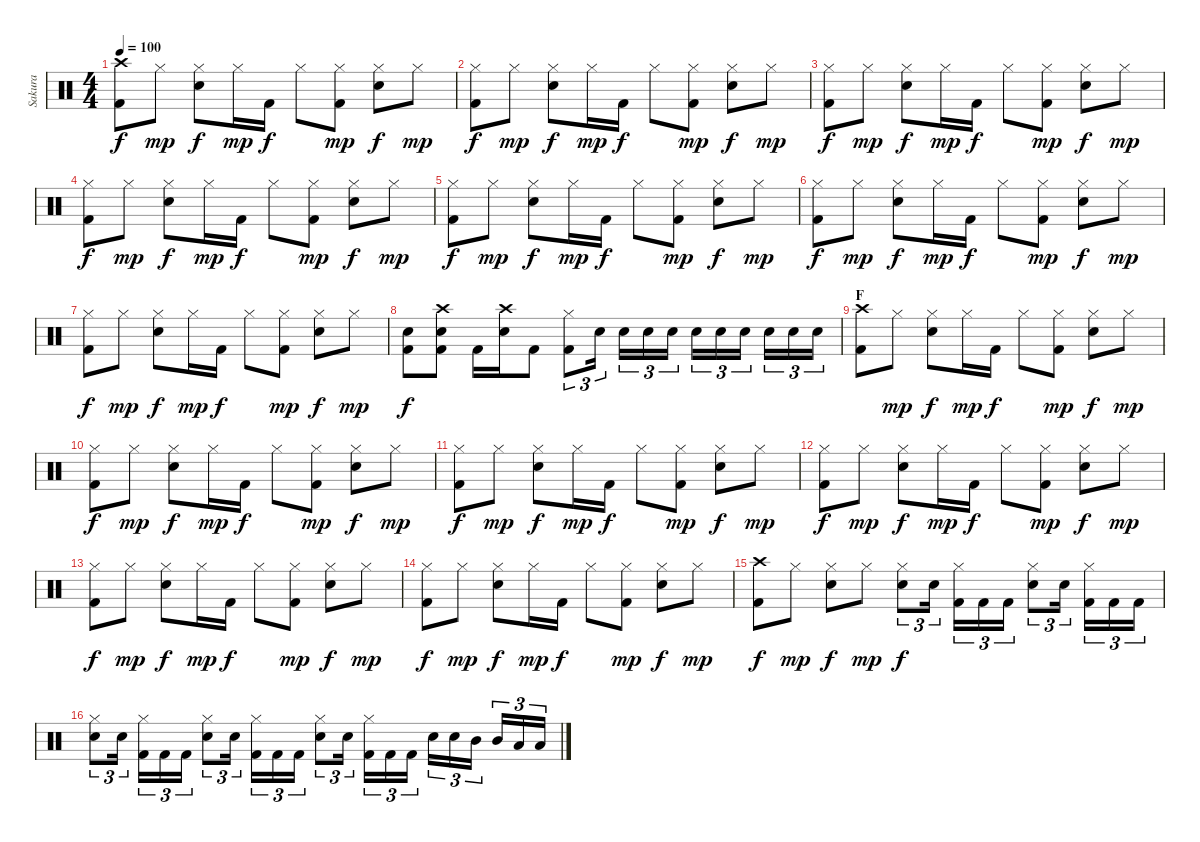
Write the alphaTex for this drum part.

\track ("Sakura" "Sakura") {instrument percussion}
\staff {score}
\articulation defaults
\ts (4 4)
\tempo 100
\clef neutral
\ks c
("Crash high (hit)" "Kick (hit) 2").8{dy f} "Hi-Hat (closed)".8{dy mp} ("Hi-Hat (closed)" "Electric Snare (hit)").8{dy f} "Hi-Hat (closed)".16{dy mp} "Kick (hit) 2".16{dy f} "Hi-Hat (closed)".8 ("Hi-Hat (closed)" "Kick (hit) 2").8{dy mp} ("Hi-Hat (closed)" "Electric Snare (hit)").8{dy f} "Hi-Hat (closed)".8{dy mp} |
("Hi-Hat (closed)" "Kick (hit) 2").8{dy f} "Hi-Hat (closed)".8{dy mp} ("Hi-Hat (closed)" "Electric Snare (hit)").8{dy f} "Hi-Hat (closed)".16{dy mp} "Kick (hit) 2".16{dy f} "Hi-Hat (closed)".8 ("Hi-Hat (closed)" "Kick (hit) 2").8{dy mp} ("Hi-Hat (closed)" "Electric Snare (hit)").8{dy f} "Hi-Hat (closed)".8{dy mp} |
("Hi-Hat (closed)" "Kick (hit) 2").8{dy f} "Hi-Hat (closed)".8{dy mp} ("Hi-Hat (closed)" "Electric Snare (hit)").8{dy f} "Hi-Hat (closed)".16{dy mp} "Kick (hit) 2".16{dy f} "Hi-Hat (closed)".8 ("Hi-Hat (closed)" "Kick (hit) 2").8{dy mp} ("Hi-Hat (closed)" "Electric Snare (hit)").8{dy f} "Hi-Hat (closed)".8{dy mp} |
("Hi-Hat (closed)" "Kick (hit) 2").8{dy f} "Hi-Hat (closed)".8{dy mp} ("Hi-Hat (closed)" "Electric Snare (hit)").8{dy f} "Hi-Hat (closed)".16{dy mp} "Kick (hit) 2".16{dy f} "Hi-Hat (closed)".8 ("Hi-Hat (closed)" "Kick (hit) 2").8{dy mp} ("Hi-Hat (closed)" "Electric Snare (hit)").8{dy f} "Hi-Hat (closed)".8{dy mp} |
("Hi-Hat (closed)" "Kick (hit) 2").8{dy f} "Hi-Hat (closed)".8{dy mp} ("Hi-Hat (closed)" "Electric Snare (hit)").8{dy f} "Hi-Hat (closed)".16{dy mp} "Kick (hit) 2".16{dy f} "Hi-Hat (closed)".8 ("Hi-Hat (closed)" "Kick (hit) 2").8{dy mp} ("Hi-Hat (closed)" "Electric Snare (hit)").8{dy f} "Hi-Hat (closed)".8{dy mp} |
("Hi-Hat (closed)" "Kick (hit) 2").8{dy f} "Hi-Hat (closed)".8{dy mp} ("Hi-Hat (closed)" "Electric Snare (hit)").8{dy f} "Hi-Hat (closed)".16{dy mp} "Kick (hit) 2".16{dy f} "Hi-Hat (closed)".8 ("Hi-Hat (closed)" "Kick (hit) 2").8{dy mp} ("Hi-Hat (closed)" "Electric Snare (hit)").8{dy f} "Hi-Hat (closed)".8{dy mp} |
("Hi-Hat (closed)" "Kick (hit) 2").8{dy f} "Hi-Hat (closed)".8{dy mp} ("Hi-Hat (closed)" "Electric Snare (hit)").8{dy f} "Hi-Hat (closed)".16{dy mp} "Kick (hit) 2".16{dy f} "Hi-Hat (closed)".8 ("Hi-Hat (closed)" "Kick (hit) 2").8{dy mp} ("Hi-Hat (closed)" "Electric Snare (hit)").8{dy f} "Hi-Hat (closed)".8{dy mp} |
("Electric Snare (hit)" "Kick (hit) 2").8{dy f} ("Crash high (hit)" "Electric Snare (hit)" "Kick (hit) 2").8 "Kick (hit) 2".16 ("Crash high (hit)" "Electric Snare (hit)").16 "Kick (hit) 2".8 ("Hi-Hat (closed)" "Kick (hit) 2").8{tu (3 2)} "Electric Snare (hit)".16{tu (3 2)} "Electric Snare (hit)".16{tu (3 2)} "Electric Snare (hit)".16{tu (3 2)} "Electric Snare (hit)".16{tu (3 2)} "Electric Snare (hit)".16{tu (3 2)} "Electric Snare (hit)".16{tu (3 2)} "Electric Snare (hit)".16{tu (3 2)} "Electric Snare (hit)".16{tu (3 2)} "Electric Snare (hit)".16{tu (3 2)} "Electric Snare (hit)".16{tu (3 2)} |
\section ("" "F")
("Crash high (hit)" "Kick (hit) 2").8 "Hi-Hat (closed)".8{dy mp} ("Hi-Hat (closed)" "Electric Snare (hit)").8{dy f} "Hi-Hat (closed)".16{dy mp} "Kick (hit) 2".16{dy f} "Hi-Hat (closed)".8 ("Hi-Hat (closed)" "Kick (hit) 2").8{dy mp} ("Hi-Hat (closed)" "Electric Snare (hit)").8{dy f} "Hi-Hat (closed)".8{dy mp} |
("Hi-Hat (closed)" "Kick (hit) 2").8{dy f} "Hi-Hat (closed)".8{dy mp} ("Hi-Hat (closed)" "Electric Snare (hit)").8{dy f} "Hi-Hat (closed)".16{dy mp} "Kick (hit) 2".16{dy f} "Hi-Hat (closed)".8 ("Hi-Hat (closed)" "Kick (hit) 2").8{dy mp} ("Hi-Hat (closed)" "Electric Snare (hit)").8{dy f} "Hi-Hat (closed)".8{dy mp} |
("Hi-Hat (closed)" "Kick (hit) 2").8{dy f} "Hi-Hat (closed)".8{dy mp} ("Hi-Hat (closed)" "Electric Snare (hit)").8{dy f} "Hi-Hat (closed)".16{dy mp} "Kick (hit) 2".16{dy f} "Hi-Hat (closed)".8 ("Hi-Hat (closed)" "Kick (hit) 2").8{dy mp} ("Hi-Hat (closed)" "Electric Snare (hit)").8{dy f} "Hi-Hat (closed)".8{dy mp} |
("Hi-Hat (closed)" "Kick (hit) 2").8{dy f} "Hi-Hat (closed)".8{dy mp} ("Hi-Hat (closed)" "Electric Snare (hit)").8{dy f} "Hi-Hat (closed)".16{dy mp} "Kick (hit) 2".16{dy f} "Hi-Hat (closed)".8 ("Hi-Hat (closed)" "Kick (hit) 2").8{dy mp} ("Hi-Hat (closed)" "Electric Snare (hit)").8{dy f} "Hi-Hat (closed)".8{dy mp} |
("Hi-Hat (closed)" "Kick (hit) 2").8{dy f} "Hi-Hat (closed)".8{dy mp} ("Hi-Hat (closed)" "Electric Snare (hit)").8{dy f} "Hi-Hat (closed)".16{dy mp} "Kick (hit) 2".16{dy f} "Hi-Hat (closed)".8 ("Hi-Hat (closed)" "Kick (hit) 2").8{dy mp} ("Hi-Hat (closed)" "Electric Snare (hit)").8{dy f} "Hi-Hat (closed)".8{dy mp} |
("Hi-Hat (closed)" "Kick (hit) 2").8{dy f} "Hi-Hat (closed)".8{dy mp} ("Hi-Hat (closed)" "Electric Snare (hit)").8{dy f} "Hi-Hat (closed)".16{dy mp} "Kick (hit) 2".16{dy f} "Hi-Hat (closed)".8 ("Hi-Hat (closed)" "Kick (hit) 2").8{dy mp} ("Hi-Hat (closed)" "Electric Snare (hit)").8{dy f} "Hi-Hat (closed)".8{dy mp} |
("Crash high (hit)" "Kick (hit) 2").8{dy f} "Hi-Hat (closed)".8{dy mp} ("Hi-Hat (closed)" "Electric Snare (hit)").8{dy f} "Hi-Hat (closed)".8{dy mp} ("Hi-Hat (closed)" "Electric Snare (hit)").8{tu (3 2) dy f} "Electric Snare (hit)".16{tu (3 2)} ("Hi-Hat (closed)" "Kick (hit) 2").16{tu (3 2)} "Kick (hit) 2".16{tu (3 2)} "Kick (hit) 2".16{tu (3 2)} ("Hi-Hat (closed)" "Electric Snare (hit)").8{tu (3 2)} "Electric Snare (hit)".16{tu (3 2)} ("Hi-Hat (closed)" "Kick (hit) 2").16{tu (3 2)} "Kick (hit) 2".16{tu (3 2)} "Kick (hit) 2".16{tu (3 2)} |
("Hi-Hat (closed)" "Electric Snare (hit)").8{tu (3 2)} "Electric Snare (hit)".16{tu (3 2)} ("Hi-Hat (closed)" "Kick (hit) 2").16{tu (3 2)} "Kick (hit) 2".16{tu (3 2)} "Kick (hit) 2".16{tu (3 2)} ("Hi-Hat (closed)" "Electric Snare (hit)").8{tu (3 2)} "Electric Snare (hit)".16{tu (3 2)} ("Hi-Hat (closed)" "Kick (hit) 2").16{tu (3 2)} "Kick (hit) 2".16{tu (3 2)} "Kick (hit) 2".16{tu (3 2)} ("Hi-Hat (closed)" "Electric Snare (hit)").8{tu (3 2)} "Electric Snare (hit)".16{tu (3 2)} ("Hi-Hat (closed)" "Kick (hit) 2").16{tu (3 2)} "Kick (hit) 2".16{tu (3 2)} "Kick (hit) 2".16{tu (3 2)} "Electric Snare (hit)".16{tu (3 2)} "Electric Snare (hit)".16{tu (3 2)} "Mid Tom (hit)".16{tu (3 2)} "Mid Tom (hit)".16{tu (3 2)} "Low Tom (hit)".16{tu (3 2)} "Low Tom (hit)".16{tu (3 2)}
